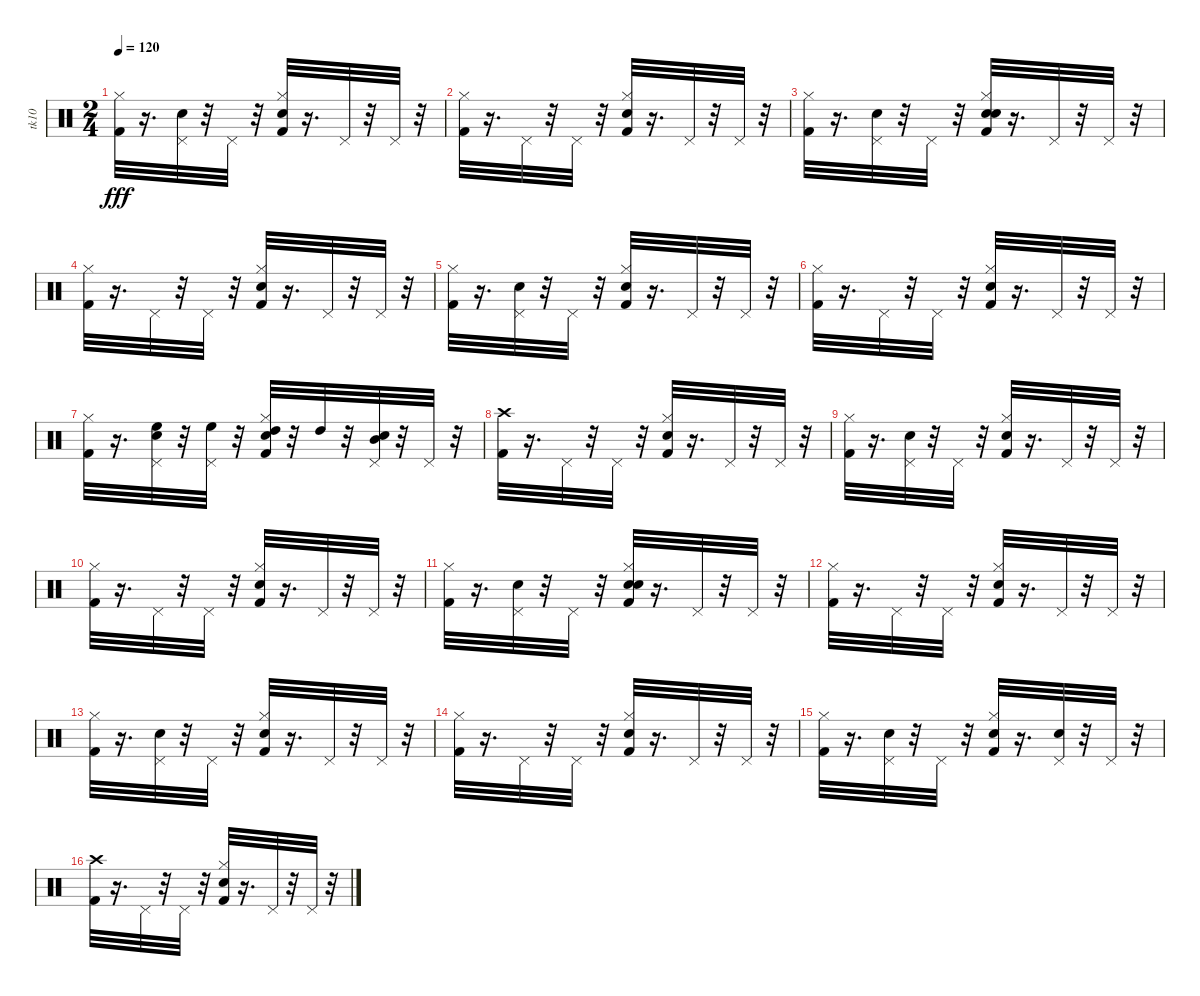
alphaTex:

\track ("tk10" "tk10") {instrument percussion}
\staff {score}
\articulation defaults
\ts (2 4)
\tempo 120
\clef neutral
\ks c
("Kick (hit) 2" "Hi-Hat (closed)").32{dy fff} r.16{d} ("Pedal Hi-Hat (hit)" "Hand Clap (hit)").32 r.32 "Pedal Hi-Hat (hit)".32 r.32 ("Snare (hit) 2" "Kick (hit) 2" "Hi-Hat (closed)").32 r.16{d} "Pedal Hi-Hat (hit)".32 r.32 "Pedal Hi-Hat (hit)".32 r.32 |
("Kick (hit) 2" "Hi-Hat (closed)").32 r.16{d} "Pedal Hi-Hat (hit)".32 r.32 "Pedal Hi-Hat (hit)".32 r.32 ("Snare (hit) 2" "Kick (hit) 2" "Hi-Hat (closed)").32 r.16{d} "Pedal Hi-Hat (hit)".32 r.32 "Pedal Hi-Hat (hit)".32 r.32 |
("Kick (hit) 2" "Hi-Hat (closed)").32 r.16{d} ("Hand Clap (hit)" "Pedal Hi-Hat (hit)").32 r.32 "Pedal Hi-Hat (hit)".32 r.32 ("Snare (hit) 2" "Kick (hit) 2" "Hand Clap (hit)" "Hi-Hat (closed)").32 r.16{d} "Pedal Hi-Hat (hit)".32 r.32 "Pedal Hi-Hat (hit)".32 r.32 |
("Kick (hit) 2" "Hi-Hat (closed)").32 r.16{d} "Pedal Hi-Hat (hit)".32 r.32 "Pedal Hi-Hat (hit)".32 r.32 ("Kick (hit) 2" "Snare (hit) 2" "Hi-Hat (closed)").32 r.16{d} "Pedal Hi-Hat (hit)".32 r.32 "Pedal Hi-Hat (hit)".32 r.32 |
("Kick (hit) 2" "Hi-Hat (closed)").32 r.16{d} ("Hand Clap (hit)" "Pedal Hi-Hat (hit)").32 r.32 "Pedal Hi-Hat (hit)".32 r.32 ("Kick (hit) 2" "Snare (hit) 2" "Hi-Hat (closed)").32 r.16{d} "Pedal Hi-Hat (hit)".32 r.32 "Pedal Hi-Hat (hit)".32 r.32 |
("Kick (hit) 2" "Hi-Hat (closed)").32 r.16{d} "Pedal Hi-Hat (hit)".32 r.32 "Pedal Hi-Hat (hit)".32 r.32 ("Snare (hit) 2" "Kick (hit) 2" "Hi-Hat (closed)").32 r.16{d} "Pedal Hi-Hat (hit)".32 r.32 "Pedal Hi-Hat (hit)".32 r.32 |
("Kick (hit) 2" "Hi-Hat (closed)").32 r.16{d} ("Hand Clap (hit)" "High Floor Tom (hit)" "Pedal Hi-Hat (hit)").32 r.32 ("High Floor Tom (hit)" "Pedal Hi-Hat (hit)").32 r.32 ("Snare (hit) 2" "Kick (hit) 2" "High Tom (hit)" "Hi-Hat (closed)").32 r.32 "High Tom (hit)".32 r.32 ("Hand Clap (hit)" "Mid Tom (hit)" "Pedal Hi-Hat (hit)").32 r.32 "Pedal Hi-Hat (hit)".32 r.32 |
("Kick (hit) 2" "Crash high (hit)").32 r.16{d} "Pedal Hi-Hat (hit)".32 r.32 "Pedal Hi-Hat (hit)".32 r.32 ("Snare (hit) 2" "Kick (hit) 2" "Hi-Hat (closed)").32 r.16{d} "Pedal Hi-Hat (hit)".32 r.32 "Pedal Hi-Hat (hit)".32 r.32 |
("Kick (hit) 2" "Hi-Hat (closed)").32 r.16{d} ("Pedal Hi-Hat (hit)" "Hand Clap (hit)").32 r.32 "Pedal Hi-Hat (hit)".32 r.32 ("Snare (hit) 2" "Kick (hit) 2" "Hi-Hat (closed)").32 r.16{d} "Pedal Hi-Hat (hit)".32 r.32 "Pedal Hi-Hat (hit)".32 r.32 |
("Kick (hit) 2" "Hi-Hat (closed)").32 r.16{d} "Pedal Hi-Hat (hit)".32 r.32 "Pedal Hi-Hat (hit)".32 r.32 ("Snare (hit) 2" "Kick (hit) 2" "Hi-Hat (closed)").32 r.16{d} "Pedal Hi-Hat (hit)".32 r.32 "Pedal Hi-Hat (hit)".32 r.32 |
("Kick (hit) 2" "Hi-Hat (closed)").32 r.16{d} ("Hand Clap (hit)" "Pedal Hi-Hat (hit)").32 r.32 "Pedal Hi-Hat (hit)".32 r.32 ("Snare (hit) 2" "Kick (hit) 2" "Hand Clap (hit)" "Hi-Hat (closed)").32 r.16{d} "Pedal Hi-Hat (hit)".32 r.32 "Pedal Hi-Hat (hit)".32 r.32 |
("Kick (hit) 2" "Hi-Hat (closed)").32 r.16{d} "Pedal Hi-Hat (hit)".32 r.32 "Pedal Hi-Hat (hit)".32 r.32 ("Kick (hit) 2" "Snare (hit) 2" "Hi-Hat (closed)").32 r.16{d} "Pedal Hi-Hat (hit)".32 r.32 "Pedal Hi-Hat (hit)".32 r.32 |
("Kick (hit) 2" "Hi-Hat (closed)").32 r.16{d} ("Hand Clap (hit)" "Pedal Hi-Hat (hit)").32 r.32 "Pedal Hi-Hat (hit)".32 r.32 ("Kick (hit) 2" "Snare (hit) 2" "Hi-Hat (closed)").32 r.16{d} "Pedal Hi-Hat (hit)".32 r.32 "Pedal Hi-Hat (hit)".32 r.32 |
("Kick (hit) 2" "Hi-Hat (closed)").32 r.16{d} "Pedal Hi-Hat (hit)".32 r.32 "Pedal Hi-Hat (hit)".32 r.32 ("Snare (hit) 2" "Kick (hit) 2" "Hi-Hat (closed)").32 r.16{d} "Pedal Hi-Hat (hit)".32 r.32 "Pedal Hi-Hat (hit)".32 r.32 |
("Kick (hit) 2" "Hi-Hat (closed)").32 r.16{d} ("Hand Clap (hit)" "Pedal Hi-Hat (hit)").32 r.32 "Pedal Hi-Hat (hit)".32 r.32 ("Snare (hit) 2" "Kick (hit) 2" "Hi-Hat (closed)").32 r.16{d} ("Hand Clap (hit)" "Pedal Hi-Hat (hit)").32 r.32 "Pedal Hi-Hat (hit)".32 r.32 |
("Kick (hit) 2" "Crash high (hit)").32 r.16{d} "Pedal Hi-Hat (hit)".32 r.32 "Pedal Hi-Hat (hit)".32 r.32 ("Snare (hit) 2" "Kick (hit) 2" "Hi-Hat (closed)").32 r.16{d} "Pedal Hi-Hat (hit)".32 r.32 "Pedal Hi-Hat (hit)".32 r.32
